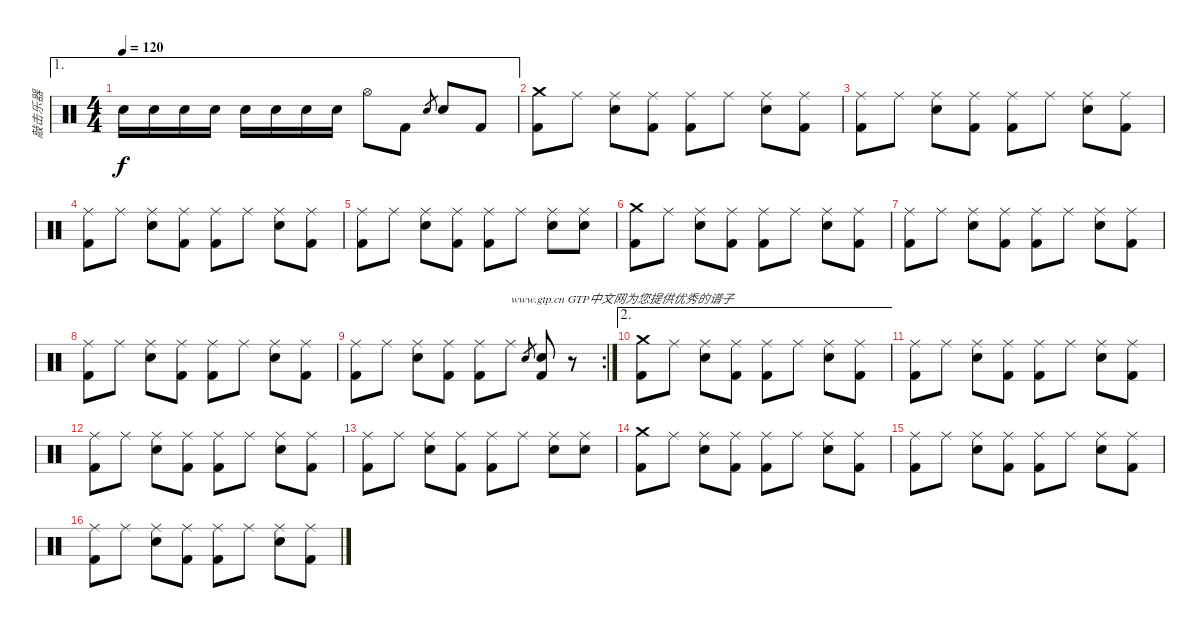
\track ("敲击乐器" "敲击乐器") {instrument percussion}
\staff {score}
\articulation defaults
\ae 1
\ts (4 4)
\tempo 120
\clef neutral
\ks c "Electric Snare (hit)".16{dy f} "Electric Snare (hit)".16 "Electric Snare (hit)".16 "Electric Snare (hit)".16 "Electric Snare (hit)".16 "Electric Snare (hit)".16 "Electric Snare (hit)".16 "Electric Snare (hit)".16 "Hi-Hat (open)".8 "Kick (hit) 2".8 "Electric Snare (hit)".8{gr} "Electric Snare (hit)".8 "Kick (hit) 2".8
|
("Crash medium (hit)" "Kick (hit) 2").8 "Ride (middle)".8 ("Ride (middle)" "Electric Snare (hit)").8 ("Ride (middle)" "Kick (hit) 2").8 ("Ride (middle)" "Kick (hit) 2").8 "Ride (middle)".8 ("Ride (middle)" "Electric Snare (hit)").8 ("Ride (middle)" "Kick (hit) 2").8 |
("Ride (middle)" "Kick (hit) 2").8 "Ride (middle)".8 ("Ride (middle)" "Electric Snare (hit)").8 ("Ride (middle)" "Kick (hit) 2").8 ("Ride (middle)" "Kick (hit) 2").8 "Ride (middle)".8 ("Ride (middle)" "Electric Snare (hit)").8 ("Ride (middle)" "Kick (hit) 2").8 |
("Ride (middle)" "Kick (hit) 2").8 "Ride (middle)".8 ("Ride (middle)" "Electric Snare (hit)").8 ("Ride (middle)" "Kick (hit) 2").8 ("Ride (middle)" "Kick (hit) 2").8 "Ride (middle)".8 ("Ride (middle)" "Electric Snare (hit)").8 ("Ride (middle)" "Kick (hit) 2").8 |
("Ride (middle)" "Kick (hit) 2").8 "Ride (middle)".8 ("Ride (middle)" "Electric Snare (hit)").8 ("Ride (middle)" "Kick (hit) 2").8 ("Ride (middle)" "Kick (hit) 2").8 "Ride (middle)".8 ("Ride (middle)" "Electric Snare (hit)").8 ("Ride (middle)" "Electric Snare (hit)").8 |
("Crash medium (hit)" "Kick (hit) 2").8 "Ride (middle)".8 ("Ride (middle)" "Electric Snare (hit)").8 ("Ride (middle)" "Kick (hit) 2").8 ("Ride (middle)" "Kick (hit) 2").8 "Ride (middle)".8 ("Ride (middle)" "Electric Snare (hit)").8 ("Ride (middle)" "Kick (hit) 2").8 |
("Ride (middle)" "Kick (hit) 2").8 "Ride (middle)".8 ("Ride (middle)" "Electric Snare (hit)").8 ("Ride (middle)" "Kick (hit) 2").8 ("Ride (middle)" "Kick (hit) 2").8 "Ride (middle)".8 ("Ride (middle)" "Electric Snare (hit)").8 ("Ride (middle)" "Kick (hit) 2").8 |
("Ride (middle)" "Kick (hit) 2").8 "Ride (middle)".8 ("Ride (middle)" "Electric Snare (hit)").8 ("Ride (middle)" "Kick (hit) 2").8 ("Ride (middle)" "Kick (hit) 2").8 "Ride (middle)".8 ("Ride (middle)" "Electric Snare (hit)").8 ("Ride (middle)" "Kick (hit) 2").8 |
\rc 2
("Ride (middle)" "Kick (hit) 2").8 "Ride (middle)".8 ("Ride (middle)" "Electric Snare (hit)").8 ("Ride (middle)" "Kick (hit) 2").8 ("Ride (middle)" "Kick (hit) 2").8 "Ride (middle)".8{txt "www.gtp.cn GTP中文网为您提供优秀的谱子"} "Electric Snare (hit)".8{gr} ("Electric Snare (hit)" "Kick (hit) 2").8 r.8 |
\ae 2
("Crash medium (hit)" "Kick (hit) 2").8 "Ride (middle)".8 ("Ride (middle)" "Electric Snare (hit)").8 ("Ride (middle)" "Kick (hit) 2").8 ("Ride (middle)" "Kick (hit) 2").8 "Ride (middle)".8 ("Ride (middle)" "Electric Snare (hit)").8 ("Ride (middle)" "Kick (hit) 2").8 |
("Ride (middle)" "Kick (hit) 2").8 "Ride (middle)".8 ("Ride (middle)" "Electric Snare (hit)").8 ("Ride (middle)" "Kick (hit) 2").8 ("Ride (middle)" "Kick (hit) 2").8 "Ride (middle)".8 ("Ride (middle)" "Electric Snare (hit)").8 ("Ride (middle)" "Kick (hit) 2").8 |
("Ride (middle)" "Kick (hit) 2").8 "Ride (middle)".8 ("Ride (middle)" "Electric Snare (hit)").8 ("Ride (middle)" "Kick (hit) 2").8 ("Ride (middle)" "Kick (hit) 2").8 "Ride (middle)".8 ("Ride (middle)" "Electric Snare (hit)").8 ("Ride (middle)" "Kick (hit) 2").8 |
("Ride (middle)" "Kick (hit) 2").8 "Ride (middle)".8 ("Ride (middle)" "Electric Snare (hit)").8 ("Ride (middle)" "Kick (hit) 2").8 ("Ride (middle)" "Kick (hit) 2").8 "Ride (middle)".8 ("Ride (middle)" "Electric Snare (hit)").8 ("Ride (middle)" "Electric Snare (hit)").8 |
("Crash medium (hit)" "Kick (hit) 2").8 "Ride (middle)".8 ("Ride (middle)" "Electric Snare (hit)").8 ("Ride (middle)" "Kick (hit) 2").8 ("Ride (middle)" "Kick (hit) 2").8 "Ride (middle)".8 ("Ride (middle)" "Electric Snare (hit)").8 ("Ride (middle)" "Kick (hit) 2").8 |
("Ride (middle)" "Kick (hit) 2").8 "Ride (middle)".8 ("Ride (middle)" "Electric Snare (hit)").8 ("Ride (middle)" "Kick (hit) 2").8 ("Ride (middle)" "Kick (hit) 2").8 "Ride (middle)".8 ("Ride (middle)" "Electric Snare (hit)").8 ("Ride (middle)" "Kick (hit) 2").8 |
("Ride (middle)" "Kick (hit) 2").8 "Ride (middle)".8 ("Ride (middle)" "Electric Snare (hit)").8 ("Ride (middle)" "Kick (hit) 2").8 ("Ride (middle)" "Kick (hit) 2").8 "Ride (middle)".8 ("Ride (middle)" "Electric Snare (hit)").8 ("Ride (middle)" "Kick (hit) 2").8
